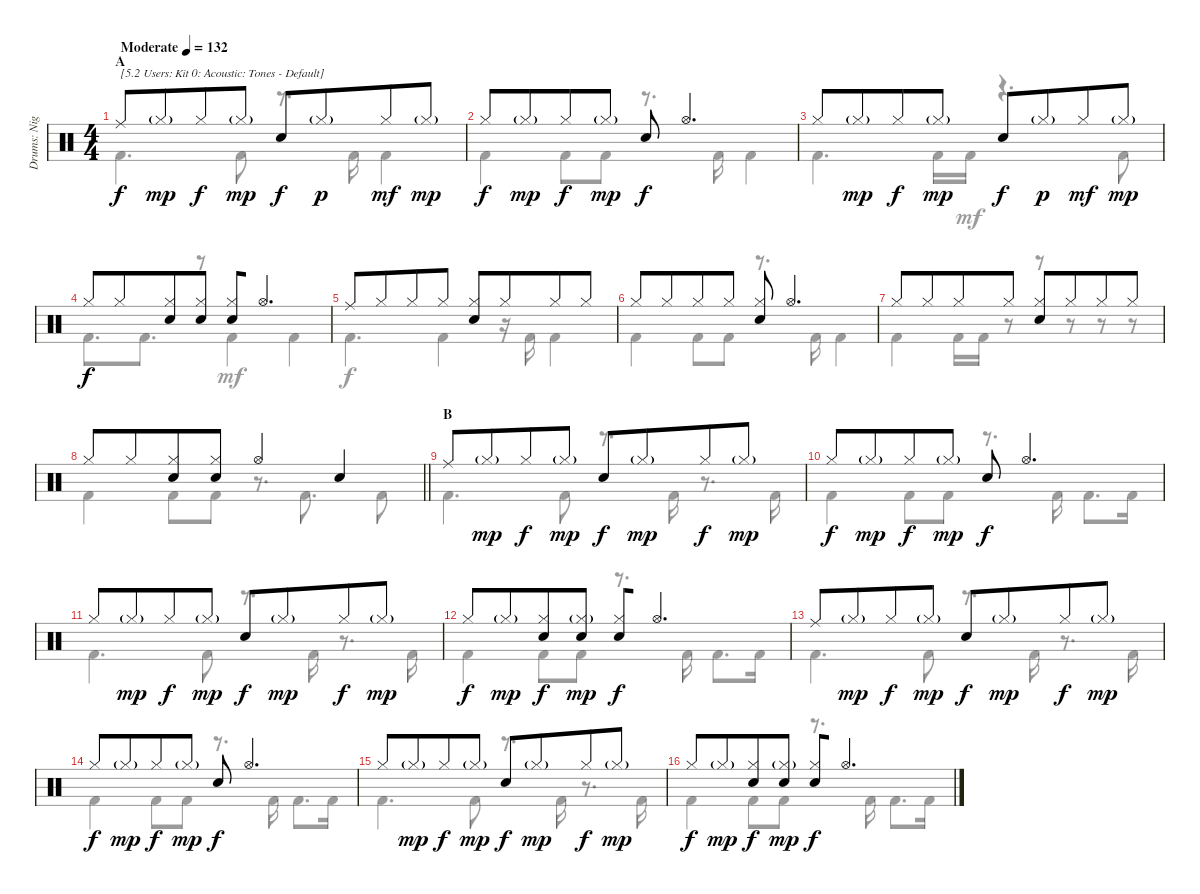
\track ("Drums: Nigel Ollson" "Drums: Nig") {instrument percussion}
\staff {score}
\articulation defaults
\voice
\ts (4 4)
\section ("" "A")
\tempo (132 "Moderate")
\clef neutral
\ks c "Ride (middle)".8{txt "[5.2 Users: Kit 0: Acoustic: Tones - Default]" dy f} "Hi-Hat (closed)"{g}.8{dy mp beam merge} "Hi-Hat (closed)".8{dy f} "Hi-Hat (closed)"{g}.8{dy mp} "Electric Snare (hit)".8{dy f} "Hi-Hat (closed)"{g}.8{dy p beam merge} "Hi-Hat (closed)".8{dy mf} "Hi-Hat (closed)"{g}.8{dy mp}
|
"Hi-Hat (closed)".8{dy f} "Hi-Hat (closed)"{g}.8{dy mp beam merge} "Hi-Hat (closed)".8{dy f} "Hi-Hat (closed)"{g}.8{dy mp} "Electric Snare (hit)".8{dy f} "Hi-Hat (open)".4{d} |
"Hi-Hat (closed)".8 "Hi-Hat (closed)"{g}.8{dy mp beam merge} "Hi-Hat (closed)".8{dy f} "Hi-Hat (closed)"{g}.8{dy mp} "Electric Snare (hit)".8{dy f} "Hi-Hat (closed)"{g}.8{dy p beam merge} "Hi-Hat (closed)".8{dy mf} "Hi-Hat (closed)"{g}.8{dy mp} |
"Hi-Hat (closed)".8{dy f} "Hi-Hat (closed)".8{beam merge} ("Hi-Hat (closed)" "Electric Snare (hit)").8 ("Hi-Hat (closed)" "Electric Snare (hit)").8 ("Hi-Hat (closed)" "Electric Snare (hit)").8{beam merge} "Hi-Hat (open)".4{d} |
"Ride (middle)".8 "Hi-Hat (closed)".8{beam merge} "Hi-Hat (closed)".8 "Hi-Hat (closed)".8 ("Hi-Hat (closed)" "Electric Snare (hit)").8 "Hi-Hat (closed)".8{beam merge} "Hi-Hat (closed)".8 "Hi-Hat (closed)".8 |
"Hi-Hat (closed)".8 "Hi-Hat (closed)".8{beam merge} "Hi-Hat (closed)".8 "Hi-Hat (closed)".8 ("Hi-Hat (closed)" "Electric Snare (hit)").8 "Hi-Hat (open)".4{d} |
"Hi-Hat (closed)".8 "Hi-Hat (closed)".8{beam merge} "Hi-Hat (closed)".8 "Hi-Hat (closed)".8 ("Hi-Hat (closed)" "Electric Snare (hit)").8 "Hi-Hat (closed)".8{beam merge} "Hi-Hat (closed)".8 "Hi-Hat (closed)".8 |
\barLineRight lightlight "Hi-Hat (closed)".8 "Hi-Hat (closed)".8{beam merge}
("Hi-Hat (closed)" "Electric Snare (hit)").8 ("Hi-Hat (closed)" "Electric Snare (hit)").8 "Hi-Hat (open)".4 "Snare (hit) 2".4 |
\section ("" "B")
"Ride (middle)".8 "Hi-Hat (closed)"{g}.8{dy mp beam merge} "Hi-Hat (closed)".8{dy f} "Hi-Hat (closed)"{g}.8{dy mp} "Electric Snare (hit)".8{dy f} "Hi-Hat (closed)"{g}.8{dy mp beam merge} "Hi-Hat (closed)".8{dy f} "Hi-Hat (closed)"{g}.8{dy mp} |
"Hi-Hat (closed)".8{dy f} "Hi-Hat (closed)"{g}.8{dy mp beam merge} "Hi-Hat (closed)".8{dy f} "Hi-Hat (closed)"{g}.8{dy mp} "Electric Snare (hit)".8{dy f} "Hi-Hat (open)".4{d} |
"Hi-Hat (closed)".8 "Hi-Hat (closed)"{g}.8{dy mp beam merge} "Hi-Hat (closed)".8{dy f} "Hi-Hat (closed)"{g}.8{dy mp} "Electric Snare (hit)".8{dy f} "Hi-Hat (closed)"{g}.8{dy mp beam merge} "Hi-Hat (closed)".8{dy f} "Hi-Hat (closed)"{g}.8{dy mp} |
"Hi-Hat (closed)".8{dy f} "Hi-Hat (closed)"{g}.8{dy mp beam merge} ("Hi-Hat (closed)" "Electric Snare (hit)").8{dy f} ("Hi-Hat (closed)"{g} "Electric Snare (hit)").8{dy mp} ("Hi-Hat (closed)" "Electric Snare (hit)").8{dy f beam merge} "Hi-Hat (open)".4{d} |
"Ride (middle)".8 "Hi-Hat (closed)"{g}.8{dy mp beam merge} "Hi-Hat (closed)".8{dy f} "Hi-Hat (closed)"{g}.8{dy mp} "Electric Snare (hit)".8{dy f} "Hi-Hat (closed)"{g}.8{dy mp beam merge} "Hi-Hat (closed)".8{dy f} "Hi-Hat (closed)"{g}.8{dy mp} |
"Hi-Hat (closed)".8{dy f} "Hi-Hat (closed)"{g}.8{dy mp beam merge} "Hi-Hat (closed)".8{dy f} "Hi-Hat (closed)"{g}.8{dy mp} "Electric Snare (hit)".8{dy f} "Hi-Hat (open)".4{d} |
"Hi-Hat (closed)".8 "Hi-Hat (closed)"{g}.8{dy mp beam merge} "Hi-Hat (closed)".8{dy f} "Hi-Hat (closed)"{g}.8{dy mp} "Electric Snare (hit)".8{dy f} "Hi-Hat (closed)"{g}.8{dy mp beam merge} "Hi-Hat (closed)".8{dy f} "Hi-Hat (closed)"{g}.8{dy mp} |
"Hi-Hat (closed)".8{dy f} "Hi-Hat (closed)"{g}.8{dy mp beam merge} ("Hi-Hat (closed)" "Electric Snare (hit)").8{dy f} ("Hi-Hat (closed)"{g} "Electric Snare (hit)").8{dy mp} ("Hi-Hat (closed)" "Electric Snare (hit)").8{dy f beam merge} "Hi-Hat (open)".4{d}
\voice
\clef neutral
\ottava regular
\simile none
\ks c "Kick (hit) 2".4{d dy f} "Kick (hit) 2".8
r.8{d} "Kick (hit) 2".16 "Kick (hit) 2".4 |
"Kick (hit) 2".4 "Kick (hit) 2".8 "Kick (hit) 2".8 r.8{d} "Kick (hit) 2".16 "Kick (hit) 2".4 |
"Kick (hit) 2".4{d} "Kick (hit) 2".16 "Kick (hit) 2".16{dy mf} r.4{d} "Kick (hit) 2".8 |
"Kick (hit) 2".8{d dy f} "Kick (hit) 2".8{d} r.8 "Kick (hit) 2".4{dy mf} "Kick (hit) 2".4 |
"Kick (hit) 2".4{d dy f} "Kick (hit) 2".4 r.16 "Kick (hit) 2".16 "Kick (hit) 2".4 |
"Kick (hit) 2".4 "Kick (hit) 2".8 "Kick (hit) 2".8 r.8{d} "Kick (hit) 2".16 "Kick (hit) 2".4 |
"Kick (hit) 2".4 "Kick (hit) 2".16 "Kick (hit) 2".16 r.8 r.8 r.8 r.8 r.8 |
\barLineRight lightlight "Kick (hit) 2".4 "Kick (hit) 2".8 "Kick (hit) 2".8
r.8{d} "Kick (hit) 2".8{d} "Kick (hit) 2".8 |
"Kick (hit) 2".4{d} "Kick (hit) 2".8 r.8{d} "Kick (hit) 2".16 r.8{d} "Kick (hit) 2".16 |
"Kick (hit) 2".4 "Kick (hit) 2".8 "Kick (hit) 2".8 r.8{d} "Kick (hit) 2".16 "Kick (hit) 2".8{d} "Kick (hit) 2".16 |
"Kick (hit) 2".4{d} "Kick (hit) 2".8 r.8{d} "Kick (hit) 2".16 r.8{d} "Kick (hit) 2".16 |
"Kick (hit) 2".4 "Kick (hit) 2".8 "Kick (hit) 2".8 r.8{d} "Kick (hit) 2".16 "Kick (hit) 2".8{d} "Kick (hit) 2".16 |
"Kick (hit) 2".4{d} "Kick (hit) 2".8 r.8{d} "Kick (hit) 2".16 r.8{d} "Kick (hit) 2".16 |
"Kick (hit) 2".4 "Kick (hit) 2".8 "Kick (hit) 2".8 r.8{d} "Kick (hit) 2".16 "Kick (hit) 2".8{d} "Kick (hit) 2".16 |
"Kick (hit) 2".4{d} "Kick (hit) 2".8 r.8{d} "Kick (hit) 2".16 r.8{d} "Kick (hit) 2".16 |
"Kick (hit) 2".4 "Kick (hit) 2".8 "Kick (hit) 2".8 r.8{d} "Kick (hit) 2".16 "Kick (hit) 2".8{d} "Kick (hit) 2".16
